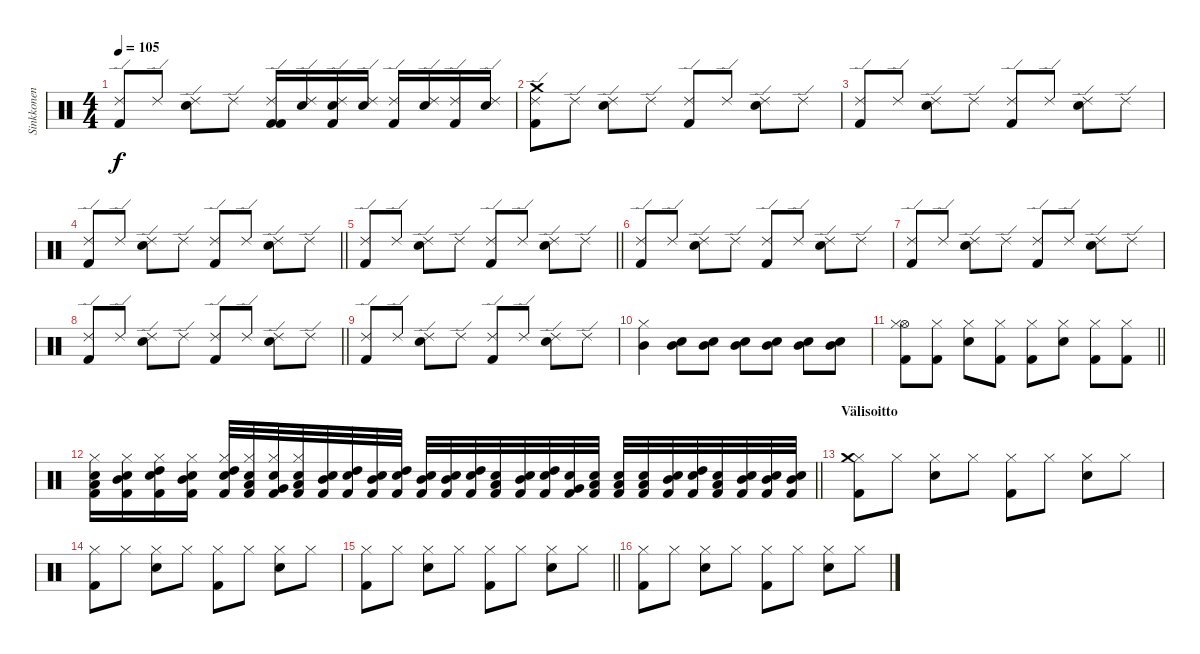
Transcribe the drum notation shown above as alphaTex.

\track ("Sinkkonen" "Sinkkonen") {instrument percussion}
\staff {score}
\articulation defaults
\ts (4 4)
\tempo 105
\clef neutral
\ks c
("Ride (edge) 2" "Kick (hit) 2").8{dy f} "Ride (edge) 2".8 ("Ride (edge) 2" "Electric Snare (hit)").8 "Ride (edge) 2".8 ("Kick (hit) 2" "Ride (edge) 2" "Kick (hit) 2").16 ("Electric Snare (hit)" "Ride (edge) 2").16 ("Kick (hit) 2" "Ride (edge) 2" "Electric Snare (hit)").16 ("Electric Snare (hit)" "Ride (edge) 2").16 ("Kick (hit) 2" "Ride (edge) 2").16 ("Electric Snare (hit)" "Ride (edge) 2").16 ("Kick (hit) 2" "Ride (edge) 2").16 ("Electric Snare (hit)" "Ride (edge) 2").16 |
("Crash medium (hit)" "Ride (edge) 2" "Kick (hit) 2").8 "Ride (edge) 2".8 ("Ride (edge) 2" "Electric Snare (hit)").8 "Ride (edge) 2".8 ("Ride (edge) 2" "Kick (hit) 2").8 "Ride (edge) 2".8 ("Ride (edge) 2" "Electric Snare (hit)").8 "Ride (edge) 2".8 |
("Ride (edge) 2" "Kick (hit) 2").8 "Ride (edge) 2".8 ("Ride (edge) 2" "Electric Snare (hit)").8 "Ride (edge) 2".8 ("Ride (edge) 2" "Kick (hit) 2").8 "Ride (edge) 2".8 ("Ride (edge) 2" "Electric Snare (hit)").8 "Ride (edge) 2".8 |
\barLineRight lightlight
("Ride (edge) 2" "Kick (hit) 2").8 "Ride (edge) 2".8 ("Ride (edge) 2" "Electric Snare (hit)").8 "Ride (edge) 2".8 ("Ride (edge) 2" "Kick (hit) 2").8 "Ride (edge) 2".8 ("Ride (edge) 2" "Electric Snare (hit)").8 "Ride (edge) 2".8 |
\section ("" "")
\barLineRight lightlight
("Ride (edge) 2" "Kick (hit) 2").8 "Ride (edge) 2".8 ("Ride (edge) 2" "Electric Snare (hit)").8 "Ride (edge) 2".8 ("Ride (edge) 2" "Kick (hit) 2").8 "Ride (edge) 2".8 ("Ride (edge) 2" "Electric Snare (hit)").8 "Ride (edge) 2".8 |
\section ("" "")
("Ride (edge) 2" "Kick (hit) 2").8 "Ride (edge) 2".8 ("Ride (edge) 2" "Electric Snare (hit)").8 "Ride (edge) 2".8 ("Ride (edge) 2" "Kick (hit) 2").8 "Ride (edge) 2".8 ("Ride (edge) 2" "Electric Snare (hit)").8 "Ride (edge) 2".8 |
("Ride (edge) 2" "Kick (hit) 2").8 "Ride (edge) 2".8 ("Ride (edge) 2" "Electric Snare (hit)").8 "Ride (edge) 2".8 ("Ride (edge) 2" "Kick (hit) 2").8 "Ride (edge) 2".8 ("Ride (edge) 2" "Electric Snare (hit)").8 "Ride (edge) 2".8 |
\barLineRight lightlight
("Ride (edge) 2" "Kick (hit) 2").8 "Ride (edge) 2".8 ("Ride (edge) 2" "Electric Snare (hit)").8 "Ride (edge) 2".8 ("Ride (edge) 2" "Kick (hit) 2").8 "Ride (edge) 2".8 ("Ride (edge) 2" "Electric Snare (hit)").8 "Ride (edge) 2".8 |
("Ride (edge) 2" "Kick (hit) 2").8 "Ride (edge) 2".8 ("Ride (edge) 2" "Electric Snare (hit)").8 "Ride (edge) 2".8 ("Ride (edge) 2" "Kick (hit) 2").8 "Ride (edge) 2".8 ("Ride (edge) 2" "Electric Snare (hit)").8 "Ride (edge) 2".8 |
("Mid Tom (hit)" "Hi-Hat (closed)").4 ("Mid Tom (hit)" "Electric Snare (hit)").8 ("Mid Tom (hit)" "Electric Snare (hit)").8 ("Mid Tom (hit)" "Electric Snare (hit)").8 ("Mid Tom (hit)" "Electric Snare (hit)").8 ("Mid Tom (hit)" "Electric Snare (hit)").8 ("Mid Tom (hit)" "Electric Snare (hit)").8 |
\barLineRight lightlight
("Kick (hit) 2" "Hi-Hat (open)" "Hi-Hat (closed)").8 ("Kick (hit) 2" "Hi-Hat (closed)").8 ("Electric Snare (hit)" "Hi-Hat (closed)").8 ("Kick (hit) 2" "Hi-Hat (closed)").8 ("Kick (hit) 2" "Hi-Hat (closed)").8 ("Electric Snare (hit)" "Hi-Hat (closed)").8 ("Kick (hit) 2" "Hi-Hat (closed)").8 ("Kick (hit) 2" "Hi-Hat (closed)").8 |
\section ("" "")
\barLineRight lightlight
("Low Tom (hit)" "Electric Snare (hit)" "Hi-Hat (closed)" "Kick (hit) 2").16 ("Mid Tom (hit)" "Electric Snare (hit)" "Hi-Hat (closed)" "Kick (hit) 2").16 ("High Tom (hit)" "Electric Snare (hit)" "Hi-Hat (closed)" "Kick (hit) 2").16 ("Mid Tom (hit)" "Electric Snare (hit)" "Hi-Hat (closed)" "Kick (hit) 2").16 ("High Tom (hit)" "Electric Snare (hit)" "Hi-Hat (closed)" "Kick (hit) 2").32 ("Low Tom (hit)" "Electric Snare (hit)" "Hi-Hat (closed)" "Kick (hit) 2").32 ("Very Low Tom (hit)" "Electric Snare (hit)" "Hi-Hat (closed)" "Kick (hit) 2").32 ("Low Tom (hit)" "Electric Snare (hit)" "Hi-Hat (closed)" "Kick (hit) 2").32 ("Mid Tom (hit)" "Electric Snare (hit)" "Kick (hit) 2").32 ("High Tom (hit)" "Electric Snare (hit)" "Kick (hit) 2").32 ("Mid Tom (hit)" "Electric Snare (hit)" "Kick (hit) 2").32 ("High Tom (hit)" "Electric Snare (hit)" "Kick (hit) 2").32 ("Mid Tom (hit)" "Electric Snare (hit)" "Kick (hit) 2").32 ("Mid Tom (hit)" "Electric Snare (hit)" "Kick (hit) 2").32 ("High Tom (hit)" "Electric Snare (hit)" "Kick (hit) 2").32 ("Low Tom (hit)" "Electric Snare (hit)" "Kick (hit) 2").32 ("Mid Tom (hit)" "Electric Snare (hit)" "Kick (hit) 2").32 ("High Tom (hit)" "Electric Snare (hit)" "Kick (hit) 2").32 ("Very Low Tom (hit)" "Electric Snare (hit)" "Kick (hit) 2").32 ("Low Floor Tom (hit)" "Electric Snare (hit)" "Kick (hit) 2").32 ("Low Floor Tom (hit)" "Electric Snare (hit)" "Kick (hit) 2").32 ("Low Tom (hit)" "Electric Snare (hit)" "Kick (hit) 2").32 ("Mid Tom (hit)" "Electric Snare (hit)" "Kick (hit) 2").32 ("High Tom (hit)" "Electric Snare (hit)" "Kick (hit) 2").32 ("Low Tom (hit)" "Electric Snare (hit)" "Kick (hit) 2").32 ("Mid Tom (hit)" "Electric Snare (hit)" "Kick (hit) 2").32 ("Mid Tom (hit)" "Electric Snare (hit)" "Kick (hit) 2").32 ("Mid Tom (hit)" "Electric Snare (hit)" "Kick (hit) 2").32 |
\section ("" "Välisoitto")
("Kick (hit) 2" "Hi-Hat (closed)" "Crash medium (hit)").8 "Hi-Hat (closed)".8 ("Electric Snare (hit)" "Hi-Hat (closed)").8 "Hi-Hat (closed)".8 ("Kick (hit) 2" "Hi-Hat (closed)").8 "Hi-Hat (closed)".8 ("Electric Snare (hit)" "Hi-Hat (closed)").8 "Hi-Hat (closed)".8 |
("Kick (hit) 2" "Hi-Hat (closed)").8 "Hi-Hat (closed)".8 ("Electric Snare (hit)" "Hi-Hat (closed)").8 "Hi-Hat (closed)".8 ("Kick (hit) 2" "Hi-Hat (closed)").8 "Hi-Hat (closed)".8 ("Electric Snare (hit)" "Hi-Hat (closed)").8 "Hi-Hat (closed)".8 |
\barLineRight lightlight
("Kick (hit) 2" "Hi-Hat (closed)").8 "Hi-Hat (closed)".8 ("Electric Snare (hit)" "Hi-Hat (closed)").8 "Hi-Hat (closed)".8 ("Kick (hit) 2" "Hi-Hat (closed)").8 "Hi-Hat (closed)".8 ("Electric Snare (hit)" "Hi-Hat (closed)").8 "Hi-Hat (closed)".8 |
("Kick (hit) 2" "Hi-Hat (closed)").8 "Hi-Hat (closed)".8 ("Electric Snare (hit)" "Hi-Hat (closed)").8 "Hi-Hat (closed)".8 ("Kick (hit) 2" "Hi-Hat (closed)").8 "Hi-Hat (closed)".8 ("Electric Snare (hit)" "Hi-Hat (closed)").8 "Hi-Hat (closed)".8
